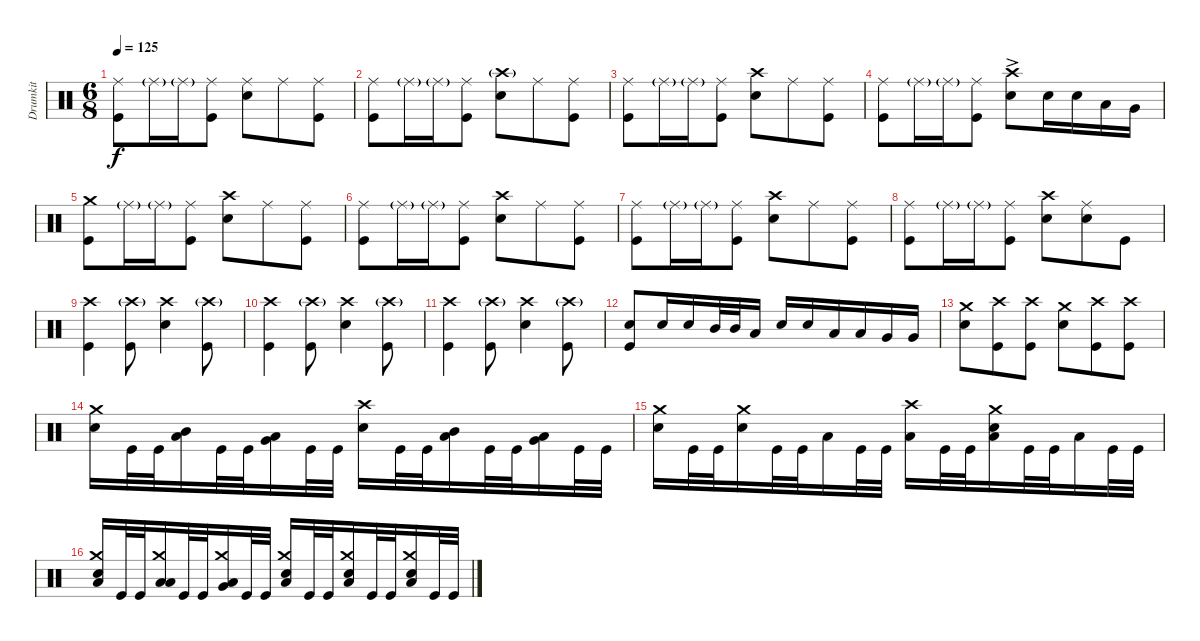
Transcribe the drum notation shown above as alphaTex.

\track ("Drumkit" "Drumkit") {instrument percussion}
\staff {score}
\articulation defaults
\ts (6 8)
\tempo 125
\clef neutral
\ks c
("Kick (hit)" "Ride (middle)").8{dy f} "Ride (middle)"{g}.16 "Ride (middle)"{g}.16 ("Kick (hit)" "Ride (middle)").8 ("Snare (hit) 2" "Ride (middle)").8 "Ride (middle)".8 ("Kick (hit)" "Ride (middle)").8 |
("Kick (hit)" "Ride (middle)").8 "Ride (middle)"{g}.16 "Ride (middle)"{g}.16 ("Kick (hit)" "Ride (middle)").8 ("Snare (hit) 2" "Crash high (hit)"{g}).8 "Ride (middle)".8 ("Kick (hit)" "Ride (middle)").8 |
("Kick (hit)" "Ride (middle)").8 "Ride (middle)"{g}.16 "Ride (middle)"{g}.16 ("Kick (hit)" "Ride (middle)").8 ("Snare (hit) 2" "Crash high (hit)").8 "Ride (middle)".8 ("Kick (hit)" "Ride (middle)").8 |
("Kick (hit)" "Ride (middle)").8 "Ride (middle)"{g}.16 "Ride (middle)"{g}.16 ("Kick (hit)" "Ride (middle)").8 ("Snare (hit) 2" "Crash high (hit)"{ac}).8 "Snare (hit) 2".16 "Snare (hit) 2".16 "Low Tom (hit)".16 "Very Low Tom (hit)".16 |
("Kick (hit)" "Crash medium (hit)").8 "Ride (middle)"{g}.16 "Ride (middle)"{g}.16 ("Kick (hit)" "Ride (middle)").8 ("Snare (hit) 2" "Crash high (hit)").8 "Ride (middle)".8 ("Kick (hit)" "Ride (middle)").8 |
("Kick (hit)" "Ride (middle)").8 "Ride (middle)"{g}.16 "Ride (middle)"{g}.16 ("Kick (hit)" "Ride (middle)").8 ("Snare (hit) 2" "Crash high (hit)").8 "Ride (middle)".8 ("Kick (hit)" "Ride (middle)").8 |
("Kick (hit)" "Ride (middle)").8 "Ride (middle)"{g}.16 "Ride (middle)"{g}.16 ("Kick (hit)" "Ride (middle)").8 ("Snare (hit) 2" "Crash high (hit)").8 "Ride (middle)".8 ("Kick (hit)" "Ride (middle)").8 |
("Kick (hit)" "Ride (middle)").8 "Ride (middle)"{g}.16 "Ride (middle)"{g}.16 ("Kick (hit)" "Ride (middle)").8 ("Snare (hit) 2" "Crash high (hit)").8 ("Ride (middle)" "Snare (hit) 2").8 "Kick (hit)".8 |
("Kick (hit)" "Crash high (hit)").4 ("Kick (hit)" "Crash high (hit)"{g}).8 ("Snare (hit) 2" "Crash high (hit)").4 ("Kick (hit)" "Crash high (hit)"{g}).8 |
("Kick (hit)" "Crash high (hit)").4 ("Kick (hit)" "Crash high (hit)"{g}).8 ("Snare (hit) 2" "Crash high (hit)").4 ("Kick (hit)" "Crash high (hit)"{g}).8 |
("Kick (hit)" "Crash high (hit)").4 ("Kick (hit)" "Crash high (hit)"{g}).8 ("Snare (hit) 2" "Crash high (hit)").4 ("Kick (hit)" "Crash high (hit)"{g}).8 |
("Kick (hit)" "Snare (hit) 2").8 "Snare (hit) 2".16 "Snare (hit) 2".16 "Mid Tom (hit)".32 "Mid Tom (hit)".32 "Low Tom (hit)".16 "Snare (hit) 2".16 "Snare (hit) 2".16 "Low Tom (hit)".16 "Low Tom (hit)".16 "Very Low Tom (hit)".16 "Very Low Tom (hit)".16 |
("Snare (hit) 2" "Crash medium (hit)").8 ("Kick (hit)" "Crash high (hit)").8 ("Kick (hit)" "Crash high (hit)").8 ("Snare (hit) 2" "Crash medium (hit)").8 ("Kick (hit)" "Crash high (hit)").8 ("Kick (hit)" "Crash high (hit)").8 |
("Snare (hit) 2" "Crash medium (hit)").16 "Kick (hit)".32 "Kick (hit)".32 ("Low Tom (hit)" "Mid Tom (hit)").16 "Kick (hit)".32 "Kick (hit)".32 ("Very Low Tom (hit)" "Low Tom (hit)").16 "Kick (hit)".32 "Kick (hit)".32 ("Snare (hit) 2" "Crash high (hit)").16 "Kick (hit)".32 "Kick (hit)".32 ("Low Tom (hit)" "Mid Tom (hit)").16 "Kick (hit)".32 "Kick (hit)".32 ("Very Low Tom (hit)" "Low Tom (hit)").16 "Kick (hit)".32 "Kick (hit)".32 |
("Snare (hit) 2" "Crash medium (hit)").16 "Kick (hit)".32 "Kick (hit)".32 ("Snare (hit) 2" "Crash medium (hit)").16 "Kick (hit)".32 "Kick (hit)".32 "Low Floor Tom (hit)".16 "Kick (hit)".32 "Kick (hit)".32 ("Low Floor Tom (hit)" "Crash high (hit)").16 "Kick (hit)".32 "Kick (hit)".32 ("Low Floor Tom (hit)" "Snare (hit) 2" "Crash medium (hit)").16 "Kick (hit)".32 "Kick (hit)".32 "Low Tom (hit)".16 "Kick (hit)".32 "Kick (hit)".32 |
("Low Floor Tom (hit)" "Snare (hit) 2" "Crash medium (hit)").16 "Kick (hit)".32 "Kick (hit)".32 ("Low Floor Tom (hit)" "Crash medium (hit)" "Low Tom (hit)").16 "Kick (hit)".32 "Kick (hit)".32 ("Low Floor Tom (hit)" "Crash medium (hit)" "Very Low Tom (hit)").16 "Kick (hit)".32 "Kick (hit)".32 ("Low Floor Tom (hit)" "Snare (hit) 2" "Crash medium (hit)").16 "Kick (hit)".32 "Kick (hit)".32 ("Low Floor Tom (hit)" "Snare (hit) 2" "Crash medium (hit)").16 "Kick (hit)".32 "Kick (hit)".32 ("Low Floor Tom (hit)" "Snare (hit) 2" "Crash medium (hit)").16 "Kick (hit)".32 "Kick (hit)".32
